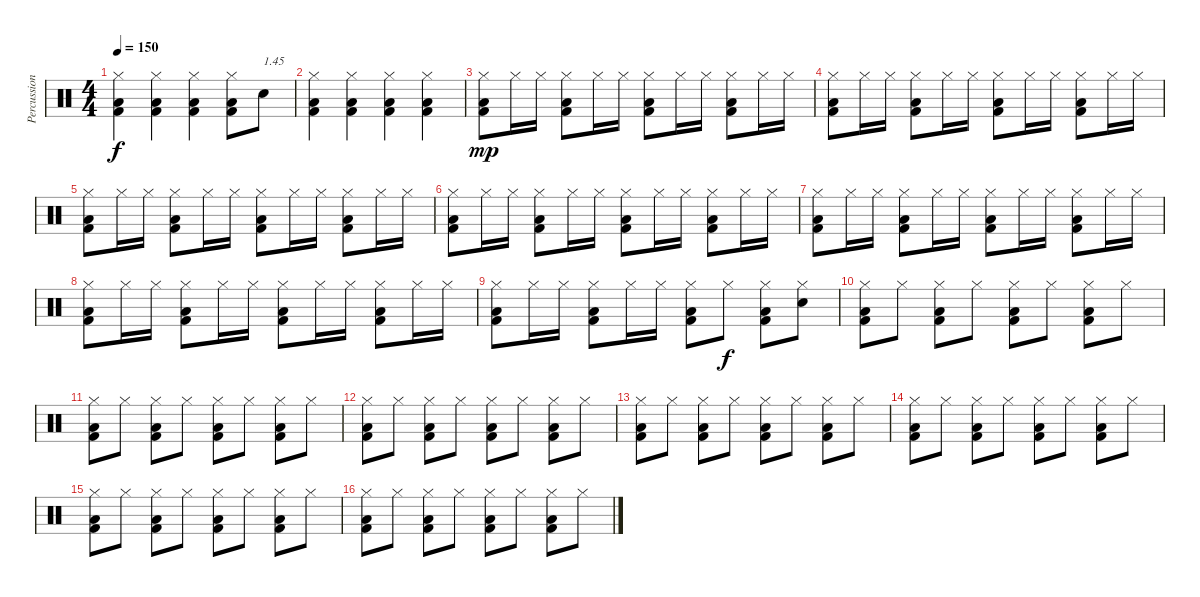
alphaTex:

\track ("Percussions" "Percussion") {instrument percussion}
\staff {score}
\articulation defaults
\ts (4 4)
\tempo 150
\clef neutral
\ks c
("Kick (hit) 2" "Low Floor Tom (hit)" "Hi-Hat (closed)").4{dy f} ("Kick (hit) 2" "Low Floor Tom (hit)" "Hi-Hat (closed)").4 ("Kick (hit) 2" "Low Floor Tom (hit)" "Hi-Hat (closed)").4 ("Kick (hit) 2" "Low Floor Tom (hit)" "Hi-Hat (closed)").8 "Snare (hit) 2".8{txt "1.45"} |
("Kick (hit) 2" "Low Floor Tom (hit)" "Hi-Hat (closed)").4 ("Kick (hit) 2" "Low Floor Tom (hit)" "Hi-Hat (closed)").4 ("Kick (hit) 2" "Low Floor Tom (hit)" "Hi-Hat (closed)").4 ("Kick (hit) 2" "Low Floor Tom (hit)" "Hi-Hat (closed)").4 |
("Kick (hit) 2" "Low Floor Tom (hit)" "Hi-Hat (closed)").8{dy mp} "Hi-Hat (closed)".16 "Hi-Hat (closed)".16 ("Kick (hit) 2" "Low Floor Tom (hit)" "Hi-Hat (closed)").8 "Hi-Hat (closed)".16 "Hi-Hat (closed)".16 ("Kick (hit) 2" "Low Floor Tom (hit)" "Hi-Hat (closed)").8 "Hi-Hat (closed)".16 "Hi-Hat (closed)".16 ("Kick (hit) 2" "Low Floor Tom (hit)" "Hi-Hat (closed)").8 "Hi-Hat (closed)".16 "Hi-Hat (closed)".16 |
("Kick (hit) 2" "Low Floor Tom (hit)" "Hi-Hat (closed)").8 "Hi-Hat (closed)".16 "Hi-Hat (closed)".16 ("Kick (hit) 2" "Low Floor Tom (hit)" "Hi-Hat (closed)").8 "Hi-Hat (closed)".16 "Hi-Hat (closed)".16 ("Kick (hit) 2" "Low Floor Tom (hit)" "Hi-Hat (closed)").8 "Hi-Hat (closed)".16 "Hi-Hat (closed)".16 ("Kick (hit) 2" "Low Floor Tom (hit)" "Hi-Hat (closed)").8 "Hi-Hat (closed)".16 "Hi-Hat (closed)".16 |
("Kick (hit) 2" "Low Floor Tom (hit)" "Hi-Hat (closed)").8 "Hi-Hat (closed)".16 "Hi-Hat (closed)".16 ("Kick (hit) 2" "Low Floor Tom (hit)" "Hi-Hat (closed)").8 "Hi-Hat (closed)".16 "Hi-Hat (closed)".16 ("Kick (hit) 2" "Low Floor Tom (hit)" "Hi-Hat (closed)").8 "Hi-Hat (closed)".16 "Hi-Hat (closed)".16 ("Kick (hit) 2" "Low Floor Tom (hit)" "Hi-Hat (closed)").8 "Hi-Hat (closed)".16 "Hi-Hat (closed)".16 |
("Kick (hit) 2" "Low Floor Tom (hit)" "Hi-Hat (closed)").8 "Hi-Hat (closed)".16 "Hi-Hat (closed)".16 ("Kick (hit) 2" "Low Floor Tom (hit)" "Hi-Hat (closed)").8 "Hi-Hat (closed)".16 "Hi-Hat (closed)".16 ("Kick (hit) 2" "Low Floor Tom (hit)" "Hi-Hat (closed)").8 "Hi-Hat (closed)".16 "Hi-Hat (closed)".16 ("Kick (hit) 2" "Low Floor Tom (hit)" "Hi-Hat (closed)").8 "Hi-Hat (closed)".16 "Hi-Hat (closed)".16 |
("Kick (hit) 2" "Low Floor Tom (hit)" "Hi-Hat (closed)").8 "Hi-Hat (closed)".16 "Hi-Hat (closed)".16 ("Kick (hit) 2" "Low Floor Tom (hit)" "Hi-Hat (closed)").8 "Hi-Hat (closed)".16 "Hi-Hat (closed)".16 ("Kick (hit) 2" "Low Floor Tom (hit)" "Hi-Hat (closed)").8 "Hi-Hat (closed)".16 "Hi-Hat (closed)".16 ("Kick (hit) 2" "Low Floor Tom (hit)" "Hi-Hat (closed)").8 "Hi-Hat (closed)".16 "Hi-Hat (closed)".16 |
("Kick (hit) 2" "Low Floor Tom (hit)" "Hi-Hat (closed)").8 "Hi-Hat (closed)".16 "Hi-Hat (closed)".16 ("Kick (hit) 2" "Low Floor Tom (hit)" "Hi-Hat (closed)").8 "Hi-Hat (closed)".16 "Hi-Hat (closed)".16 ("Kick (hit) 2" "Low Floor Tom (hit)" "Hi-Hat (closed)").8 "Hi-Hat (closed)".16 "Hi-Hat (closed)".16 ("Kick (hit) 2" "Low Floor Tom (hit)" "Hi-Hat (closed)").8 "Hi-Hat (closed)".16 "Hi-Hat (closed)".16 |
("Kick (hit) 2" "Low Floor Tom (hit)" "Hi-Hat (closed)").8 "Hi-Hat (closed)".16 "Hi-Hat (closed)".16 ("Kick (hit) 2" "Low Floor Tom (hit)" "Hi-Hat (closed)").8 "Hi-Hat (closed)".16 "Hi-Hat (closed)".16 ("Kick (hit) 2" "Low Floor Tom (hit)" "Hi-Hat (closed)").8 "Hi-Hat (closed)".8{dy f} ("Kick (hit) 2" "Low Floor Tom (hit)" "Hi-Hat (closed)").8 ("Snare (hit) 2" "Hi-Hat (closed)").8 |
("Kick (hit) 2" "Low Floor Tom (hit)" "Hi-Hat (closed)").8 "Hi-Hat (closed)".8 ("Kick (hit) 2" "Low Floor Tom (hit)" "Hi-Hat (closed)").8 "Hi-Hat (closed)".8 ("Kick (hit) 2" "Low Floor Tom (hit)" "Hi-Hat (closed)").8 "Hi-Hat (closed)".8 ("Kick (hit) 2" "Low Floor Tom (hit)" "Hi-Hat (closed)").8 "Hi-Hat (closed)".8 |
("Kick (hit) 2" "Low Floor Tom (hit)" "Hi-Hat (closed)").8 "Hi-Hat (closed)".8 ("Kick (hit) 2" "Low Floor Tom (hit)" "Hi-Hat (closed)").8 "Hi-Hat (closed)".8 ("Kick (hit) 2" "Low Floor Tom (hit)" "Hi-Hat (closed)").8 "Hi-Hat (closed)".8 ("Kick (hit) 2" "Low Floor Tom (hit)" "Hi-Hat (closed)").8 "Hi-Hat (closed)".8 |
("Kick (hit) 2" "Low Floor Tom (hit)" "Hi-Hat (closed)").8 "Hi-Hat (closed)".8 ("Kick (hit) 2" "Low Floor Tom (hit)" "Hi-Hat (closed)").8 "Hi-Hat (closed)".8 ("Kick (hit) 2" "Low Floor Tom (hit)" "Hi-Hat (closed)").8 "Hi-Hat (closed)".8 ("Kick (hit) 2" "Low Floor Tom (hit)" "Hi-Hat (closed)").8 "Hi-Hat (closed)".8 |
("Kick (hit) 2" "Low Floor Tom (hit)" "Hi-Hat (closed)").8 "Hi-Hat (closed)".8 ("Kick (hit) 2" "Low Floor Tom (hit)" "Hi-Hat (closed)").8 "Hi-Hat (closed)".8 ("Kick (hit) 2" "Low Floor Tom (hit)" "Hi-Hat (closed)").8 "Hi-Hat (closed)".8 ("Kick (hit) 2" "Low Floor Tom (hit)" "Hi-Hat (closed)").8 "Hi-Hat (closed)".8 |
("Kick (hit) 2" "Low Floor Tom (hit)" "Hi-Hat (closed)").8 "Hi-Hat (closed)".8 ("Kick (hit) 2" "Low Floor Tom (hit)" "Hi-Hat (closed)").8 "Hi-Hat (closed)".8 ("Kick (hit) 2" "Low Floor Tom (hit)" "Hi-Hat (closed)").8 "Hi-Hat (closed)".8 ("Kick (hit) 2" "Low Floor Tom (hit)" "Hi-Hat (closed)").8 "Hi-Hat (closed)".8 |
("Kick (hit) 2" "Low Floor Tom (hit)" "Hi-Hat (closed)").8 "Hi-Hat (closed)".8 ("Kick (hit) 2" "Low Floor Tom (hit)" "Hi-Hat (closed)").8 "Hi-Hat (closed)".8 ("Kick (hit) 2" "Low Floor Tom (hit)" "Hi-Hat (closed)").8 "Hi-Hat (closed)".8 ("Kick (hit) 2" "Low Floor Tom (hit)" "Hi-Hat (closed)").8 "Hi-Hat (closed)".8 |
("Kick (hit) 2" "Low Floor Tom (hit)" "Hi-Hat (closed)").8 "Hi-Hat (closed)".8 ("Kick (hit) 2" "Low Floor Tom (hit)" "Hi-Hat (closed)").8 "Hi-Hat (closed)".8 ("Kick (hit) 2" "Low Floor Tom (hit)" "Hi-Hat (closed)").8 "Hi-Hat (closed)".8 ("Kick (hit) 2" "Low Floor Tom (hit)" "Hi-Hat (closed)").8 "Hi-Hat (closed)".8
